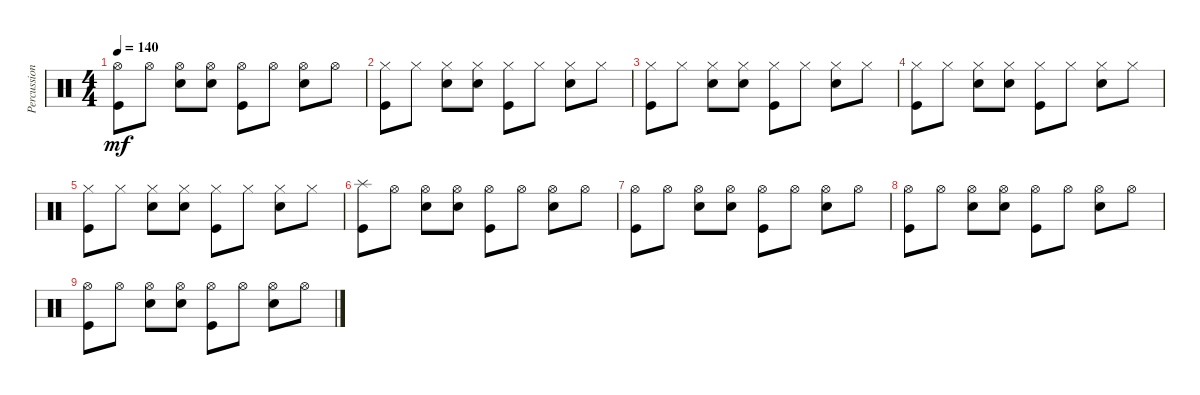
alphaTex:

\track ("Percussion" "Percussion") {instrument percussion}
\staff {score}
\articulation defaults
\ts (4 4)
\tempo 140
\clef neutral
\ks c
("Hi-Hat (open)" "Kick (hit)").8{dy mf} "Hi-Hat (open)".8 ("Hi-Hat (open)" "Snare (hit) 2").8{volume 11} ("Hi-Hat (open)" "Snare (hit) 2").8 ("Hi-Hat (open)" "Kick (hit)").8 "Hi-Hat (open)".8 ("Hi-Hat (open)" "Snare (hit) 2").8 "Hi-Hat (open)".8 |
("Hi-Hat (closed)" "Kick (hit)").8{volume 10} "Hi-Hat (closed)".8 ("Hi-Hat (closed)" "Snare (hit) 2").8 ("Hi-Hat (closed)" "Snare (hit) 2").8 ("Hi-Hat (closed)" "Kick (hit)").8 "Hi-Hat (closed)".8 ("Hi-Hat (closed)" "Snare (hit) 2").8 "Hi-Hat (closed)".8 |
("Hi-Hat (closed)" "Kick (hit)").8{volume 6} "Hi-Hat (closed)".8 ("Hi-Hat (closed)" "Snare (hit) 2").8 ("Hi-Hat (closed)" "Snare (hit) 2").8 ("Hi-Hat (closed)" "Kick (hit)").8 "Hi-Hat (closed)".8 ("Hi-Hat (closed)" "Snare (hit) 2").8 "Hi-Hat (closed)".8 |
("Hi-Hat (closed)" "Kick (hit)").8{volume 6} "Hi-Hat (closed)".8 ("Hi-Hat (closed)" "Snare (hit) 2").8 ("Hi-Hat (closed)" "Snare (hit) 2").8 ("Hi-Hat (closed)" "Kick (hit)").8 "Hi-Hat (closed)".8 ("Hi-Hat (closed)" "Snare (hit) 2").8 "Hi-Hat (closed)".8 |
("Hi-Hat (closed)" "Kick (hit)").8{volume 5} "Hi-Hat (closed)".8 ("Hi-Hat (closed)" "Snare (hit) 2").8 ("Hi-Hat (closed)" "Snare (hit) 2").8 ("Hi-Hat (closed)" "Kick (hit)").8 "Hi-Hat (closed)".8 ("Hi-Hat (closed)" "Snare (hit) 2").8 "Hi-Hat (closed)".8 |
("Splash (hit)" "Kick (hit)").8{volume 8} "Hi-Hat (open)".8 ("Hi-Hat (open)" "Snare (hit) 2").8 ("Hi-Hat (open)" "Snare (hit) 2").8 ("Hi-Hat (open)" "Kick (hit)").8 "Hi-Hat (open)".8 ("Hi-Hat (open)" "Snare (hit) 2").8 "Hi-Hat (open)".8 |
("Hi-Hat (open)" "Kick (hit)").8{volume 5} "Hi-Hat (open)".8 ("Hi-Hat (open)" "Snare (hit) 2").8 ("Hi-Hat (open)" "Snare (hit) 2").8 ("Hi-Hat (open)" "Kick (hit)").8 "Hi-Hat (open)".8 ("Hi-Hat (open)" "Snare (hit) 2").8 "Hi-Hat (open)".8 |
("Hi-Hat (open)" "Kick (hit)").8{volume 3} "Hi-Hat (open)".8 ("Hi-Hat (open)" "Snare (hit) 2").8 ("Hi-Hat (open)" "Snare (hit) 2").8 ("Hi-Hat (open)" "Kick (hit)").8 "Hi-Hat (open)".8 ("Hi-Hat (open)" "Snare (hit) 2").8 "Hi-Hat (open)".8 |
("Hi-Hat (open)" "Kick (hit)").8{volume 2} "Hi-Hat (open)".8 ("Hi-Hat (open)" "Snare (hit) 2").8 ("Hi-Hat (open)" "Snare (hit) 2").8 ("Hi-Hat (open)" "Kick (hit)").8 "Hi-Hat (open)".8{volume 1} ("Hi-Hat (open)" "Snare (hit) 2").8 "Hi-Hat (open)".8
